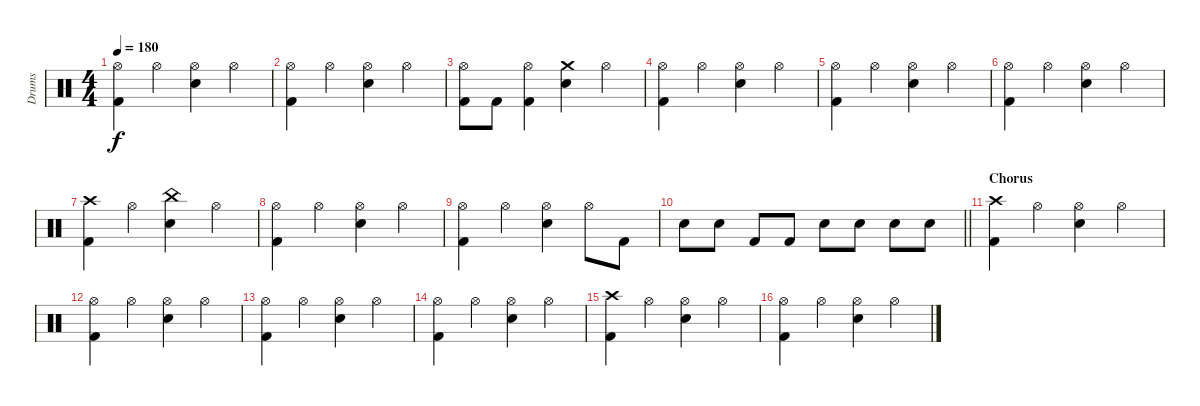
\track ("Drums" "Drums") {instrument percussion}
\staff {score}
\articulation defaults
\ts (4 4)
\tempo 180
\clef neutral
\ks c
("Hi-Hat (open)" "Kick (hit) 2").4{dy f} "Hi-Hat (open)".4 ("Hi-Hat (open)" "Electric Snare (hit)").4 "Hi-Hat (open)".4 |
("Hi-Hat (open)" "Kick (hit) 2").4 "Hi-Hat (open)".4 ("Hi-Hat (open)" "Electric Snare (hit)").4 "Hi-Hat (open)".4 |
("Kick (hit) 2" "Hi-Hat (open)").8 "Kick (hit) 2".8 ("Kick (hit) 2" "Hi-Hat (open)").4 ("Crash medium (hit)" "Electric Snare (hit)").4 "Hi-Hat (open)".4 |
("Hi-Hat (open)" "Kick (hit) 2").4 "Hi-Hat (open)".4 ("Hi-Hat (open)" "Electric Snare (hit)").4 "Hi-Hat (open)".4 |
("Hi-Hat (open)" "Kick (hit) 2").4 "Hi-Hat (open)".4 ("Hi-Hat (open)" "Electric Snare (hit)").4 "Hi-Hat (open)".4 |
("Hi-Hat (open)" "Kick (hit) 2").4 "Hi-Hat (open)".4 ("Hi-Hat (open)" "Electric Snare (hit)").4 "Hi-Hat (open)".4 |
("Crash high (hit)" "Kick (hit) 2").4 "Hi-Hat (open)".4 ("China (hit)" "Electric Snare (hit)").4 "Hi-Hat (open)".4 |
("Hi-Hat (open)" "Kick (hit) 2").4 "Hi-Hat (open)".4 ("Hi-Hat (open)" "Electric Snare (hit)").4 "Hi-Hat (open)".4 |
("Hi-Hat (open)" "Kick (hit) 2").4 "Hi-Hat (open)".4 ("Hi-Hat (open)" "Electric Snare (hit)").4 "Hi-Hat (open)".8 "Kick (hit) 2".8 |
\barLineRight lightlight "Electric Snare (hit)".8 "Electric Snare (hit)".8 "Kick (hit) 2".8 "Kick (hit) 2".8 "Electric Snare (hit)".8 "Electric Snare (hit)".8 "Electric Snare (hit)".8 "Electric Snare (hit)".8
|
\section ("" "Chorus")
("Crash high (hit)" "Kick (hit) 2").4 "Hi-Hat (open)".4 ("Hi-Hat (open)" "Electric Snare (hit)").4 "Hi-Hat (open)".4 |
("Hi-Hat (open)" "Kick (hit) 2").4 "Hi-Hat (open)".4 ("Hi-Hat (open)" "Electric Snare (hit)").4 "Hi-Hat (open)".4 |
("Hi-Hat (open)" "Kick (hit) 2").4 "Hi-Hat (open)".4 ("Hi-Hat (open)" "Electric Snare (hit)").4 "Hi-Hat (open)".4 |
("Hi-Hat (open)" "Kick (hit) 2").4 "Hi-Hat (open)".4 ("Hi-Hat (open)" "Electric Snare (hit)").4 "Hi-Hat (open)".4 |
("Crash high (hit)" "Kick (hit) 2").4 "Hi-Hat (open)".4 ("Hi-Hat (open)" "Electric Snare (hit)").4 "Hi-Hat (open)".4 |
("Hi-Hat (open)" "Kick (hit) 2").4 "Hi-Hat (open)".4 ("Hi-Hat (open)" "Electric Snare (hit)").4 "Hi-Hat (open)".4
